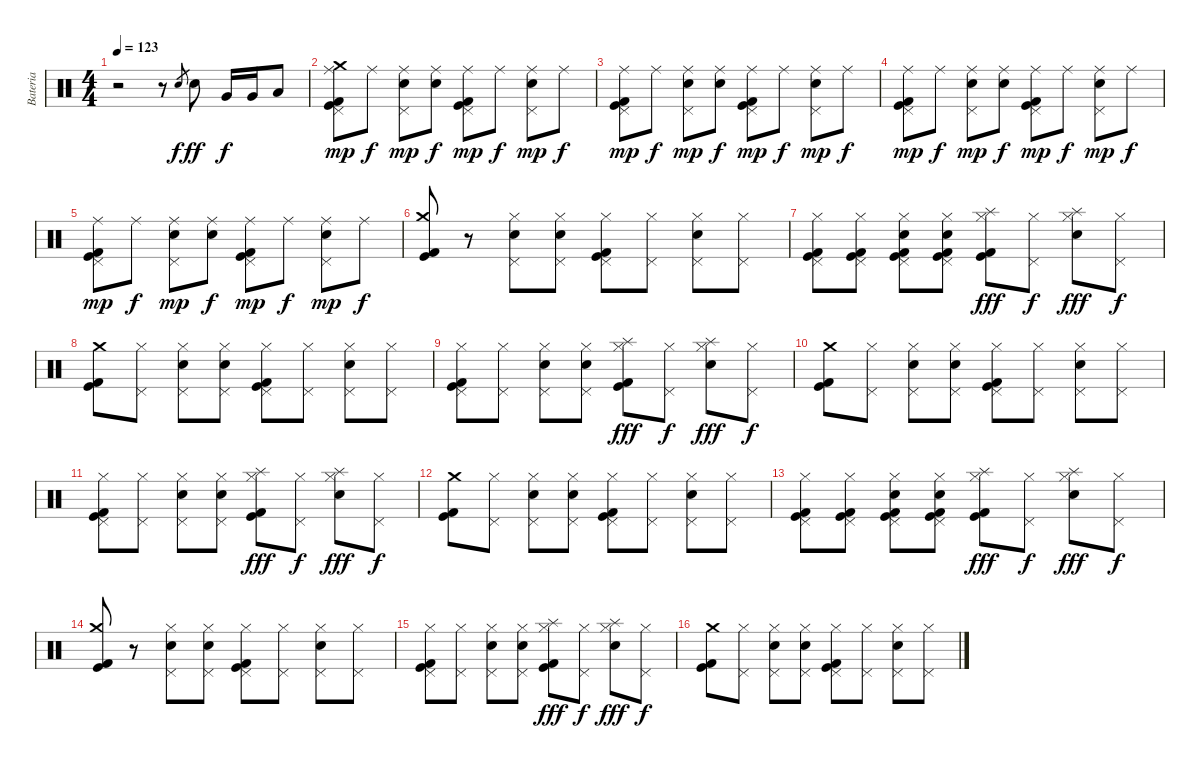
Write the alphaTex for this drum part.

\track ("Bateria" "Bateria") {instrument percussion}
\staff {score}
\articulation defaults
\ts (4 4)
\tempo 123
\clef neutral
\ks c
r.2{dy f} r.8 "Snare (hit) 2".8{gr} "Snare (hit) 2".8{dy ff} "Very Low Tom (hit)".16{dy f} "Very Low Tom (hit)".16 "Low Floor Tom (hit)".8 |
("Kick (hit) 2" "Pedal Hi-Hat (hit)" "Crash medium (hit)" "Ride (middle)" "Kick (hit)").8{dy mp} "Ride (middle)".8{dy f} ("Snare (hit) 2" "Pedal Hi-Hat (hit)" "Ride (middle)").8{dy mp} ("Snare (hit) 2" "Ride (middle)").8{dy f} ("Kick (hit) 2" "Pedal Hi-Hat (hit)" "Ride (middle)" "Kick (hit)").8{dy mp} "Ride (middle)".8{dy f} ("Snare (hit) 2" "Pedal Hi-Hat (hit)" "Ride (middle)").8{dy mp} "Ride (middle)".8{dy f} |
("Kick (hit) 2" "Pedal Hi-Hat (hit)" "Ride (middle)" "Kick (hit)").8{dy mp} "Ride (middle)".8{dy f} ("Snare (hit) 2" "Pedal Hi-Hat (hit)" "Ride (middle)").8{dy mp} ("Snare (hit) 2" "Ride (middle)").8{dy f} ("Kick (hit) 2" "Pedal Hi-Hat (hit)" "Ride (middle)" "Kick (hit)").8{dy mp} "Ride (middle)".8{dy f} ("Snare (hit) 2" "Pedal Hi-Hat (hit)" "Ride (middle)").8{dy mp} "Ride (middle)".8{dy f} |
("Kick (hit) 2" "Pedal Hi-Hat (hit)" "Ride (middle)" "Kick (hit)").8{dy mp} "Ride (middle)".8{dy f} ("Snare (hit) 2" "Pedal Hi-Hat (hit)" "Ride (middle)").8{dy mp} ("Snare (hit) 2" "Ride (middle)").8{dy f} ("Kick (hit) 2" "Pedal Hi-Hat (hit)" "Ride (middle)" "Kick (hit)").8{dy mp} "Ride (middle)".8{dy f} ("Snare (hit) 2" "Pedal Hi-Hat (hit)" "Ride (middle)").8{dy mp} "Ride (middle)".8{dy f} |
("Kick (hit) 2" "Pedal Hi-Hat (hit)" "Ride (middle)" "Kick (hit)").8{dy mp} "Ride (middle)".8{dy f} ("Snare (hit) 2" "Pedal Hi-Hat (hit)" "Ride (middle)").8{dy mp} ("Snare (hit) 2" "Ride (middle)").8{dy f} ("Kick (hit) 2" "Pedal Hi-Hat (hit)" "Ride (middle)" "Kick (hit)").8{dy mp} "Ride (middle)".8{dy f} ("Snare (hit) 2" "Pedal Hi-Hat (hit)" "Ride (middle)").8{dy mp} "Ride (middle)".8{dy f} |
("Kick (hit) 2" "Crash medium (hit)" "Kick (hit)").8 r.8 ("Snare (hit) 2" "Pedal Hi-Hat (hit)" "Hi-Hat (closed)").8 ("Snare (hit) 2" "Pedal Hi-Hat (hit)" "Hi-Hat (closed)").8 ("Kick (hit) 2" "Pedal Hi-Hat (hit)" "Hi-Hat (closed)" "Kick (hit)").8 ("Pedal Hi-Hat (hit)" "Hi-Hat (closed)").8 ("Snare (hit) 2" "Pedal Hi-Hat (hit)" "Hi-Hat (closed)").8 ("Pedal Hi-Hat (hit)" "Hi-Hat (closed)").8 |
("Kick (hit) 2" "Pedal Hi-Hat (hit)" "Hi-Hat (closed)" "Kick (hit)").8 ("Kick (hit) 2" "Pedal Hi-Hat (hit)" "Hi-Hat (closed)" "Kick (hit)").8 ("Snare (hit) 2" "Kick (hit) 2" "Pedal Hi-Hat (hit)" "Hi-Hat (closed)" "Kick (hit)").8 ("Snare (hit) 2" "Kick (hit) 2" "Pedal Hi-Hat (hit)" "Hi-Hat (closed)" "Kick (hit)").8 ("Kick (hit) 2" "Splash (hit)" "Hi-Hat (closed)" "Kick (hit)").8{dy fff} ("Pedal Hi-Hat (hit)" "Hi-Hat (closed)").8{dy f} ("Snare (hit) 2" "Splash (hit)" "Hi-Hat (closed)").8{dy fff} ("Pedal Hi-Hat (hit)" "Hi-Hat (closed)").8{dy f} |
("Kick (hit) 2" "Crash medium (hit)" "Kick (hit)").8 ("Pedal Hi-Hat (hit)" "Hi-Hat (closed)").8 ("Snare (hit) 2" "Pedal Hi-Hat (hit)" "Hi-Hat (closed)").8 ("Snare (hit) 2" "Pedal Hi-Hat (hit)" "Hi-Hat (closed)").8 ("Kick (hit) 2" "Pedal Hi-Hat (hit)" "Hi-Hat (closed)" "Kick (hit)").8 ("Pedal Hi-Hat (hit)" "Hi-Hat (closed)").8 ("Snare (hit) 2" "Pedal Hi-Hat (hit)" "Hi-Hat (closed)").8 ("Pedal Hi-Hat (hit)" "Hi-Hat (closed)").8 |
("Kick (hit) 2" "Pedal Hi-Hat (hit)" "Hi-Hat (closed)" "Kick (hit)").8 ("Pedal Hi-Hat (hit)" "Hi-Hat (closed)").8 ("Snare (hit) 2" "Pedal Hi-Hat (hit)" "Hi-Hat (closed)").8 ("Snare (hit) 2" "Pedal Hi-Hat (hit)" "Hi-Hat (closed)").8 ("Kick (hit) 2" "Splash (hit)" "Hi-Hat (closed)" "Kick (hit)").8{dy fff} ("Pedal Hi-Hat (hit)" "Hi-Hat (closed)").8{dy f} ("Snare (hit) 2" "Splash (hit)" "Hi-Hat (closed)").8{dy fff} ("Pedal Hi-Hat (hit)" "Hi-Hat (closed)").8{dy f} |
("Kick (hit) 2" "Crash medium (hit)" "Kick (hit)").8 ("Pedal Hi-Hat (hit)" "Hi-Hat (closed)").8 ("Snare (hit) 2" "Pedal Hi-Hat (hit)" "Hi-Hat (closed)").8 ("Snare (hit) 2" "Pedal Hi-Hat (hit)" "Hi-Hat (closed)").8 ("Kick (hit) 2" "Pedal Hi-Hat (hit)" "Hi-Hat (closed)" "Kick (hit)").8 ("Pedal Hi-Hat (hit)" "Hi-Hat (closed)").8 ("Snare (hit) 2" "Pedal Hi-Hat (hit)" "Hi-Hat (closed)").8 ("Pedal Hi-Hat (hit)" "Hi-Hat (closed)").8 |
("Kick (hit) 2" "Pedal Hi-Hat (hit)" "Hi-Hat (closed)" "Kick (hit)").8 ("Pedal Hi-Hat (hit)" "Hi-Hat (closed)").8 ("Snare (hit) 2" "Pedal Hi-Hat (hit)" "Hi-Hat (closed)").8 ("Snare (hit) 2" "Pedal Hi-Hat (hit)" "Hi-Hat (closed)").8 ("Kick (hit) 2" "Splash (hit)" "Hi-Hat (closed)" "Kick (hit)").8{dy fff} ("Pedal Hi-Hat (hit)" "Hi-Hat (closed)").8{dy f} ("Snare (hit) 2" "Splash (hit)" "Hi-Hat (closed)").8{dy fff} ("Pedal Hi-Hat (hit)" "Hi-Hat (closed)").8{dy f} |
("Kick (hit) 2" "Crash medium (hit)" "Kick (hit)").8 ("Pedal Hi-Hat (hit)" "Hi-Hat (closed)").8 ("Snare (hit) 2" "Pedal Hi-Hat (hit)" "Hi-Hat (closed)").8 ("Snare (hit) 2" "Pedal Hi-Hat (hit)" "Hi-Hat (closed)").8 ("Kick (hit) 2" "Pedal Hi-Hat (hit)" "Hi-Hat (closed)" "Kick (hit)").8 ("Pedal Hi-Hat (hit)" "Hi-Hat (closed)").8 ("Snare (hit) 2" "Pedal Hi-Hat (hit)" "Hi-Hat (closed)").8 ("Pedal Hi-Hat (hit)" "Hi-Hat (closed)").8 |
("Kick (hit) 2" "Pedal Hi-Hat (hit)" "Hi-Hat (closed)" "Kick (hit)").8 ("Kick (hit) 2" "Pedal Hi-Hat (hit)" "Hi-Hat (closed)" "Kick (hit)").8 ("Snare (hit) 2" "Kick (hit) 2" "Pedal Hi-Hat (hit)" "Hi-Hat (closed)" "Kick (hit)").8 ("Snare (hit) 2" "Kick (hit) 2" "Pedal Hi-Hat (hit)" "Hi-Hat (closed)" "Kick (hit)").8 ("Kick (hit) 2" "Splash (hit)" "Hi-Hat (closed)" "Kick (hit)").8{dy fff} ("Pedal Hi-Hat (hit)" "Hi-Hat (closed)").8{dy f} ("Snare (hit) 2" "Splash (hit)" "Hi-Hat (closed)").8{dy fff} ("Pedal Hi-Hat (hit)" "Hi-Hat (closed)").8{dy f} |
("Kick (hit) 2" "Crash medium (hit)" "Kick (hit)").8 r.8 ("Snare (hit) 2" "Pedal Hi-Hat (hit)" "Hi-Hat (closed)").8 ("Snare (hit) 2" "Pedal Hi-Hat (hit)" "Hi-Hat (closed)").8 ("Kick (hit) 2" "Pedal Hi-Hat (hit)" "Hi-Hat (closed)" "Kick (hit)").8 ("Pedal Hi-Hat (hit)" "Hi-Hat (closed)").8 ("Snare (hit) 2" "Pedal Hi-Hat (hit)" "Hi-Hat (closed)").8 ("Pedal Hi-Hat (hit)" "Hi-Hat (closed)").8 |
("Kick (hit) 2" "Pedal Hi-Hat (hit)" "Hi-Hat (closed)" "Kick (hit)").8 ("Pedal Hi-Hat (hit)" "Hi-Hat (closed)").8 ("Snare (hit) 2" "Pedal Hi-Hat (hit)" "Hi-Hat (closed)").8 ("Snare (hit) 2" "Pedal Hi-Hat (hit)" "Hi-Hat (closed)").8 ("Kick (hit) 2" "Splash (hit)" "Hi-Hat (closed)" "Kick (hit)").8{dy fff} ("Pedal Hi-Hat (hit)" "Hi-Hat (closed)").8{dy f} ("Snare (hit) 2" "Splash (hit)" "Hi-Hat (closed)").8{dy fff} ("Pedal Hi-Hat (hit)" "Hi-Hat (closed)").8{dy f} |
("Kick (hit) 2" "Crash medium (hit)" "Kick (hit)").8 ("Pedal Hi-Hat (hit)" "Hi-Hat (closed)").8 ("Snare (hit) 2" "Pedal Hi-Hat (hit)" "Hi-Hat (closed)").8 ("Snare (hit) 2" "Pedal Hi-Hat (hit)" "Hi-Hat (closed)").8 ("Kick (hit) 2" "Pedal Hi-Hat (hit)" "Hi-Hat (closed)" "Kick (hit)").8 ("Pedal Hi-Hat (hit)" "Hi-Hat (closed)").8 ("Snare (hit) 2" "Pedal Hi-Hat (hit)" "Hi-Hat (closed)").8 ("Pedal Hi-Hat (hit)" "Hi-Hat (closed)").8
